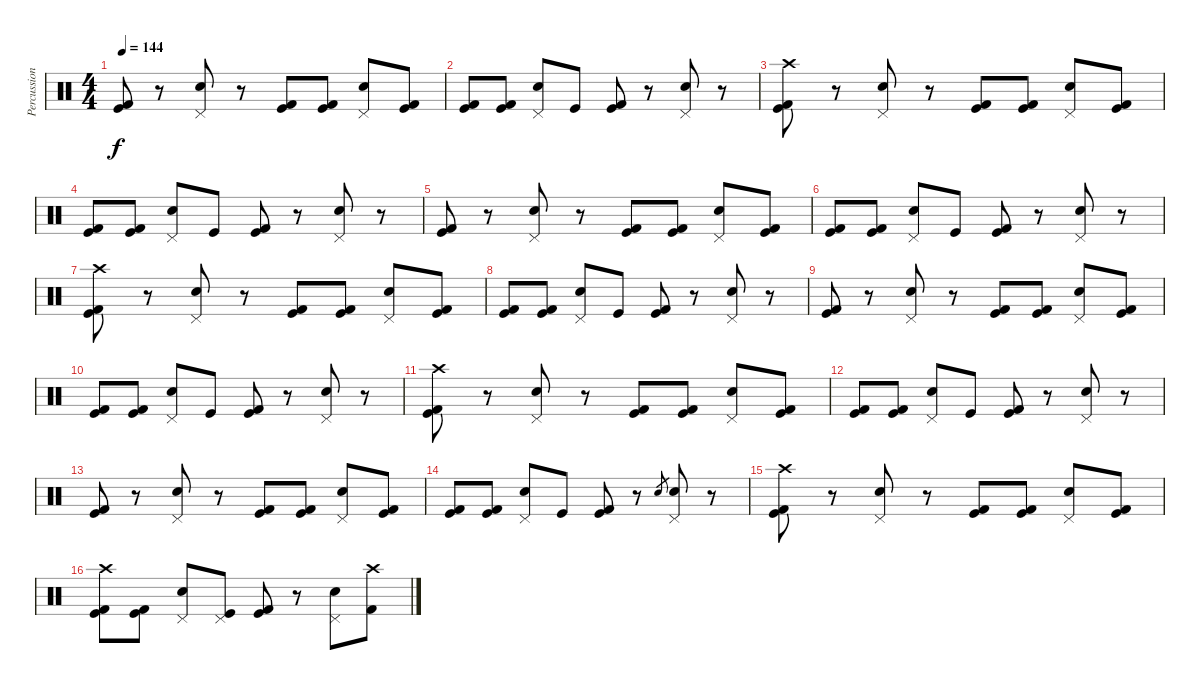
\track ("Percussions" "Percussion") {instrument percussion}
\staff {score}
\articulation defaults
\ts (4 4)
\tempo 144
\clef neutral
\ks c
("Kick (hit)" "Kick (hit) 2").8{dy f} r.8 ("Pedal Hi-Hat (hit)" "Snare (hit) 2").8 r.8 ("Kick (hit)" "Kick (hit) 2").8 ("Kick (hit)" "Kick (hit) 2").8 ("Pedal Hi-Hat (hit)" "Snare (hit) 2").8 ("Kick (hit)" "Kick (hit) 2").8 |
("Kick (hit)" "Kick (hit) 2").8 ("Kick (hit)" "Kick (hit) 2").8 ("Pedal Hi-Hat (hit)" "Snare (hit) 2").8 "Kick (hit)".8 ("Kick (hit)" "Kick (hit) 2").8 r.8 ("Pedal Hi-Hat (hit)" "Snare (hit) 2").8 r.8 |
("Crash high (hit)" "Kick (hit)" "Kick (hit) 2").8 r.8 ("Pedal Hi-Hat (hit)" "Snare (hit) 2").8 r.8 ("Kick (hit)" "Kick (hit) 2").8 ("Kick (hit)" "Kick (hit) 2").8 ("Pedal Hi-Hat (hit)" "Snare (hit) 2").8 ("Kick (hit)" "Kick (hit) 2").8 |
("Kick (hit)" "Kick (hit) 2").8 ("Kick (hit)" "Kick (hit) 2").8 ("Pedal Hi-Hat (hit)" "Snare (hit) 2").8 "Kick (hit)".8 ("Kick (hit)" "Kick (hit) 2").8 r.8 ("Pedal Hi-Hat (hit)" "Snare (hit) 2").8 r.8 |
("Kick (hit)" "Kick (hit) 2").8 r.8 ("Pedal Hi-Hat (hit)" "Snare (hit) 2").8 r.8 ("Kick (hit)" "Kick (hit) 2").8 ("Kick (hit)" "Kick (hit) 2").8 ("Pedal Hi-Hat (hit)" "Snare (hit) 2").8 ("Kick (hit)" "Kick (hit) 2").8 |
("Kick (hit)" "Kick (hit) 2").8 ("Kick (hit)" "Kick (hit) 2").8 ("Pedal Hi-Hat (hit)" "Snare (hit) 2").8 "Kick (hit)".8 ("Kick (hit)" "Kick (hit) 2").8 r.8 ("Pedal Hi-Hat (hit)" "Snare (hit) 2").8 r.8 |
("Crash high (hit)" "Kick (hit)" "Kick (hit) 2").8 r.8 ("Pedal Hi-Hat (hit)" "Snare (hit) 2").8 r.8 ("Kick (hit)" "Kick (hit) 2").8 ("Kick (hit)" "Kick (hit) 2").8 ("Pedal Hi-Hat (hit)" "Snare (hit) 2").8 ("Kick (hit)" "Kick (hit) 2").8 |
("Kick (hit)" "Kick (hit) 2").8 ("Kick (hit)" "Kick (hit) 2").8 ("Pedal Hi-Hat (hit)" "Snare (hit) 2").8 "Kick (hit)".8 ("Kick (hit)" "Kick (hit) 2").8 r.8 ("Pedal Hi-Hat (hit)" "Snare (hit) 2").8 r.8 |
("Kick (hit)" "Kick (hit) 2").8 r.8 ("Pedal Hi-Hat (hit)" "Snare (hit) 2").8 r.8 ("Kick (hit)" "Kick (hit) 2").8 ("Kick (hit)" "Kick (hit) 2").8 ("Pedal Hi-Hat (hit)" "Snare (hit) 2").8 ("Kick (hit)" "Kick (hit) 2").8 |
("Kick (hit)" "Kick (hit) 2").8 ("Kick (hit)" "Kick (hit) 2").8 ("Pedal Hi-Hat (hit)" "Snare (hit) 2").8 "Kick (hit)".8 ("Kick (hit)" "Kick (hit) 2").8 r.8 ("Pedal Hi-Hat (hit)" "Snare (hit) 2").8 r.8 |
("Crash high (hit)" "Kick (hit)" "Kick (hit) 2").8 r.8 ("Pedal Hi-Hat (hit)" "Snare (hit) 2").8 r.8 ("Kick (hit)" "Kick (hit) 2").8 ("Kick (hit)" "Kick (hit) 2").8 ("Pedal Hi-Hat (hit)" "Snare (hit) 2").8 ("Kick (hit)" "Kick (hit) 2").8 |
("Kick (hit)" "Kick (hit) 2").8 ("Kick (hit)" "Kick (hit) 2").8 ("Pedal Hi-Hat (hit)" "Snare (hit) 2").8 "Kick (hit)".8 ("Kick (hit)" "Kick (hit) 2").8 r.8 ("Pedal Hi-Hat (hit)" "Snare (hit) 2").8 r.8 |
("Kick (hit)" "Kick (hit) 2").8 r.8 ("Pedal Hi-Hat (hit)" "Snare (hit) 2").8 r.8 ("Kick (hit)" "Kick (hit) 2").8 ("Kick (hit)" "Kick (hit) 2").8 ("Pedal Hi-Hat (hit)" "Snare (hit) 2").8 ("Kick (hit)" "Kick (hit) 2").8 |
("Kick (hit)" "Kick (hit) 2").8 ("Kick (hit)" "Kick (hit) 2").8 ("Pedal Hi-Hat (hit)" "Snare (hit) 2").8 "Kick (hit)".8 ("Kick (hit)" "Kick (hit) 2").8 r.8 "Snare (hit) 2".8{gr} ("Pedal Hi-Hat (hit)" "Snare (hit) 2").8 r.8 |
("Crash high (hit)" "Kick (hit)" "Kick (hit) 2").8 r.8 ("Pedal Hi-Hat (hit)" "Snare (hit) 2").8 r.8 ("Kick (hit)" "Kick (hit) 2").8 ("Kick (hit)" "Kick (hit) 2").8 ("Pedal Hi-Hat (hit)" "Snare (hit) 2").8 ("Kick (hit)" "Kick (hit) 2").8 |
("Crash high (hit)" "Kick (hit)" "Kick (hit) 2").8 ("Kick (hit)" "Kick (hit) 2").8 ("Pedal Hi-Hat (hit)" "Snare (hit) 2").8 ("Pedal Hi-Hat (hit)" "Kick (hit)").8 ("Kick (hit)" "Kick (hit) 2").8 r.8 ("Pedal Hi-Hat (hit)" "Snare (hit) 2").8 ("Crash high (hit)" "Kick (hit) 2").8
